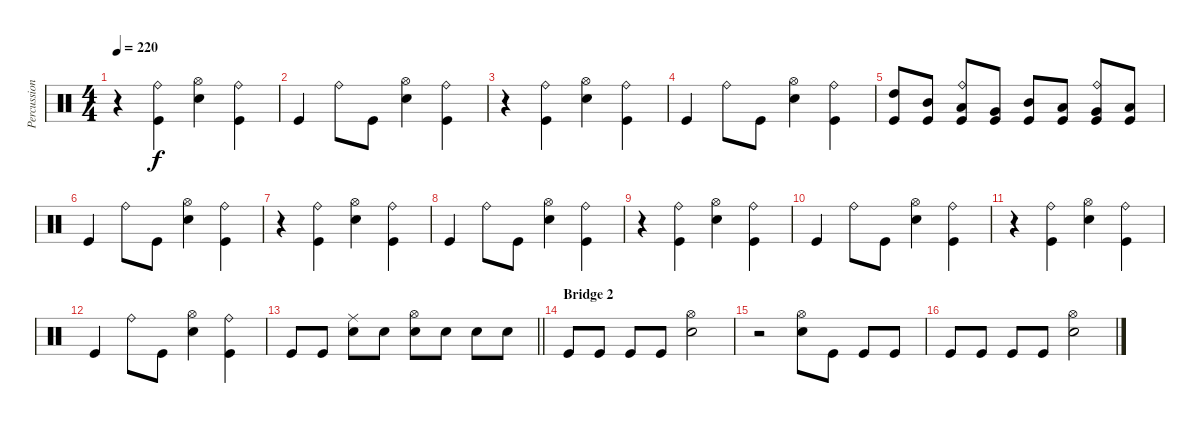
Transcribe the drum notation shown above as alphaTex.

\track ("Percussion" "Percussion") {instrument percussion}
\staff {score}
\articulation defaults
\ts (4 4)
\tempo 220
\clef neutral
\ks c
r.4{dy f} ("Kick (hit)" "Ride (bell)").4 ("Snare (hit) 2" "Hi-Hat (open)").4 ("Kick (hit)" "Ride (bell)").4 |
"Kick (hit)".4 "Ride (bell)".8 "Kick (hit)".8 ("Snare (hit) 2" "Hi-Hat (open)").4 ("Kick (hit)" "Ride (bell)").4 |
r.4 ("Kick (hit)" "Ride (bell)").4 ("Snare (hit) 2" "Hi-Hat (open)").4 ("Kick (hit)" "Ride (bell)").4 |
"Kick (hit)".4 "Ride (bell)".8 "Kick (hit)".8 ("Snare (hit) 2" "Hi-Hat (open)").4 ("Kick (hit)" "Ride (bell)").4 |
("Kick (hit)" "High Tom (hit)").8 ("Kick (hit)" "Mid Tom (hit)").8 ("Kick (hit)" "Ride (bell)" "Low Tom (hit)").8 ("Kick (hit)" "Very Low Tom (hit)").8 ("Kick (hit)" "Mid Tom (hit)").8 ("Kick (hit)" "Low Tom (hit)").8 ("Kick (hit)" "Ride (bell)" "Very Low Tom (hit)").8 ("Kick (hit)" "Low Floor Tom (hit)").8 |
"Kick (hit)".4 "Ride (bell)".8 "Kick (hit)".8 ("Snare (hit) 2" "Hi-Hat (open)").4 ("Kick (hit)" "Ride (bell)").4 |
r.4 ("Kick (hit)" "Ride (bell)").4 ("Snare (hit) 2" "Hi-Hat (open)").4 ("Kick (hit)" "Ride (bell)").4 |
"Kick (hit)".4 "Ride (bell)".8 "Kick (hit)".8 ("Snare (hit) 2" "Hi-Hat (open)").4 ("Kick (hit)" "Ride (bell)").4 |
r.4 ("Kick (hit)" "Ride (bell)").4 ("Snare (hit) 2" "Hi-Hat (open)").4 ("Kick (hit)" "Ride (bell)").4 |
"Kick (hit)".4 "Ride (bell)".8 "Kick (hit)".8 ("Snare (hit) 2" "Hi-Hat (open)").4 ("Kick (hit)" "Ride (bell)").4 |
r.4 ("Kick (hit)" "Ride (bell)").4 ("Snare (hit) 2" "Hi-Hat (open)").4 ("Kick (hit)" "Ride (bell)").4 |
"Kick (hit)".4 "Ride (bell)".8 "Kick (hit)".8 ("Snare (hit) 2" "Hi-Hat (open)").4 ("Kick (hit)" "Ride (bell)").4 |
\barLineRight lightlight "Kick (hit)".8 "Kick (hit)".8
("Snare (hit) 2" "Ride (middle)").8 "Snare (hit) 2".8 ("Snare (hit) 2" "Hi-Hat (open)").8 "Snare (hit) 2".8 "Snare (hit) 2".8 "Snare (hit) 2".8 |
\section ("" "Bridge 2")
"Kick (hit)".8 "Kick (hit)".8 "Kick (hit)".8 "Kick (hit)".8 ("Snare (hit) 2" "Hi-Hat (open)").2 |
r.2 ("Snare (hit) 2" "Hi-Hat (open)").8 "Kick (hit)".8 "Kick (hit)".8 "Kick (hit)".8 |
"Kick (hit)".8 "Kick (hit)".8 "Kick (hit)".8 "Kick (hit)".8 ("Snare (hit) 2" "Hi-Hat (open)").2
